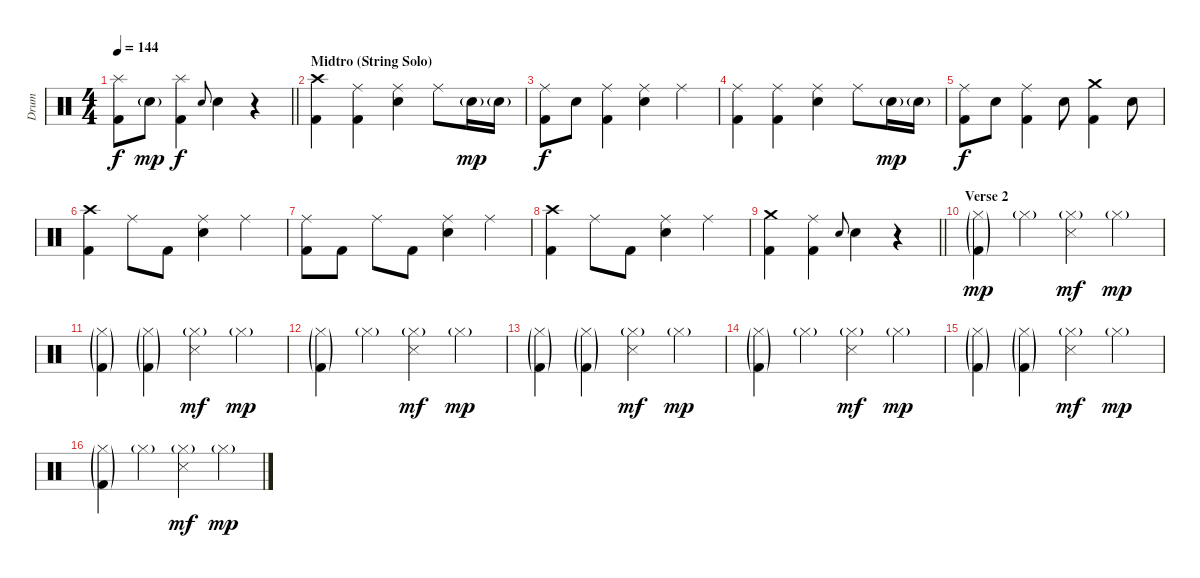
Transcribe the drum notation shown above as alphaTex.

\track ("Drum" "Drum") {instrument percussion}
\staff {score}
\articulation defaults
\ts (4 4)
\tempo 144
\clef neutral
\barLineRight lightlight
\ks c
("Splash (hit)" "Kick (hit) 2").8{dy f} "Electric Snare (hit)"{g}.8{dy mp} ("Splash (hit)" "Kick (hit) 2").4{dy f} "Electric Snare (hit)".8{gr onbeat} "Electric Snare (hit)".4 r.4 |
\section ("" "Midtro (String Solo)")
("Crash high (hit)" "Kick (hit) 2").4 ("Ride (middle)" "Kick (hit) 2").4 ("Ride (middle)" "Electric Snare (hit)").4 "Ride (middle)".8 "Electric Snare (hit)"{g}.16{dy mp} "Electric Snare (hit)"{g}.16 |
("Ride (middle)" "Kick (hit) 2").8{dy f} "Electric Snare (hit)".8 ("Ride (middle)" "Kick (hit) 2").4 ("Ride (middle)" "Electric Snare (hit)").4 "Ride (middle)".4 |
("Ride (middle)" "Kick (hit) 2").4 ("Ride (middle)" "Kick (hit) 2").4 ("Ride (middle)" "Electric Snare (hit)").4 "Ride (middle)".8 "Electric Snare (hit)"{g}.16{dy mp} "Electric Snare (hit)"{g}.16 |
("Ride (middle)" "Kick (hit) 2").8{dy f} "Electric Snare (hit)".8 ("Ride (middle)" "Kick (hit) 2").4 "Electric Snare (hit)".8 ("Crash medium (hit)" "Kick (hit) 2").4 "Electric Snare (hit)".8 |
("Crash high (hit)" "Kick (hit) 2").4 "Ride (middle)".8 "Kick (hit) 2".8 ("Ride (middle)" "Electric Snare (hit)").4 "Ride (middle)".4 |
("Ride (middle)" "Kick (hit) 2").8 "Kick (hit) 2".8 "Ride (middle)".8 "Kick (hit) 2".8 ("Ride (middle)" "Electric Snare (hit)").4 "Ride (middle)".4 |
("Crash high (hit)" "Kick (hit) 2").4 "Ride (middle)".8 "Kick (hit) 2".8 ("Ride (middle)" "Electric Snare (hit)").4 "Ride (middle)".4 |
\barLineRight lightlight
("Crash medium (hit)" "Kick (hit) 2").4 ("Ride (middle)" "Kick (hit) 2").4 "Electric Snare (hit)".8{gr onbeat} "Electric Snare (hit)".4 r.4 |
\section ("" "Verse 2")
("Hi-Hat (closed)"{g} "Kick (hit) 2"{g}).4{dy mp} "Hi-Hat (closed)"{g}.4 ("Hi-Hat (closed)"{g} "Snare (side stick) 3").4{dy mf} "Hi-Hat (closed)"{g}.4{dy mp} |
("Hi-Hat (closed)"{g} "Kick (hit) 2"{g}).4 ("Hi-Hat (closed)"{g} "Kick (hit) 2"{g}).4 ("Hi-Hat (closed)"{g} "Snare (side stick) 3").4{dy mf} "Hi-Hat (closed)"{g}.4{dy mp} |
("Hi-Hat (closed)"{g} "Kick (hit) 2"{g}).4 "Hi-Hat (closed)"{g}.4 ("Hi-Hat (closed)"{g} "Snare (side stick) 3").4{dy mf} "Hi-Hat (closed)"{g}.4{dy mp} |
("Hi-Hat (closed)"{g} "Kick (hit) 2"{g}).4 ("Hi-Hat (closed)"{g} "Kick (hit) 2"{g}).4 ("Hi-Hat (closed)"{g} "Snare (side stick) 3").4{dy mf} "Hi-Hat (closed)"{g}.4{dy mp} |
("Hi-Hat (closed)"{g} "Kick (hit) 2"{g}).4 "Hi-Hat (closed)"{g}.4 ("Hi-Hat (closed)"{g} "Snare (side stick) 3").4{dy mf} "Hi-Hat (closed)"{g}.4{dy mp} |
("Hi-Hat (closed)"{g} "Kick (hit) 2"{g}).4 ("Hi-Hat (closed)"{g} "Kick (hit) 2"{g}).4 ("Hi-Hat (closed)"{g} "Snare (side stick) 3").4{dy mf} "Hi-Hat (closed)"{g}.4{dy mp} |
("Hi-Hat (closed)"{g} "Kick (hit) 2"{g}).4 "Hi-Hat (closed)"{g}.4 ("Hi-Hat (closed)"{g} "Snare (side stick) 3").4{dy mf} "Hi-Hat (closed)"{g}.4{dy mp}
